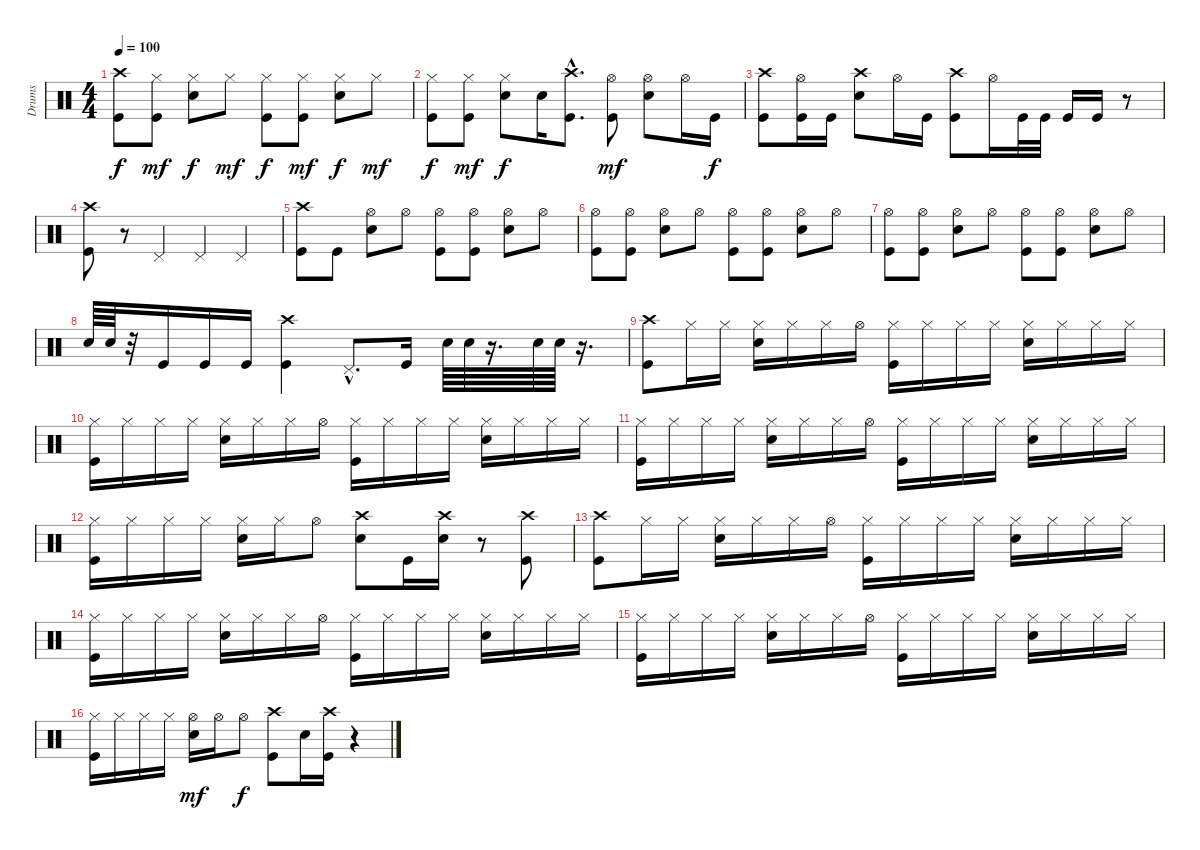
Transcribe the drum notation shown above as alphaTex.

\track ("Drums" "Drums") {instrument percussion}
\staff {score}
\articulation defaults
\ts (4 4)
\tempo 100
\clef neutral
\ks c
("Crash high (hit)" "Kick (hit)").8{dy f} ("Hi-Hat (closed)" "Kick (hit)").8{dy mf} ("Hi-Hat (closed)" "Snare (hit) 2").8{dy f} "Hi-Hat (closed)".8{dy mf} ("Hi-Hat (closed)" "Kick (hit)").8{dy f} ("Hi-Hat (closed)" "Kick (hit)").8{dy mf} ("Hi-Hat (closed)" "Snare (hit) 2").8{dy f} "Hi-Hat (closed)".8{dy mf} |
("Hi-Hat (closed)" "Kick (hit)").8{dy f} ("Hi-Hat (closed)" "Kick (hit)").8{dy mf} ("Hi-Hat (closed)" "Snare (hit) 2").8{dy f} "Snare (hit) 2".16 ("Crash high (hit)"{hac} "Kick (hit)"{hac}).8{d} ("Hi-Hat (open)" "Kick (hit)").8{dy mf} ("Hi-Hat (open)" "Snare (hit) 2").8 "Hi-Hat (open)".16 "Kick (hit)".16{dy f} |
("Crash high (hit)" "Kick (hit)").8 ("Hi-Hat (open)" "Kick (hit)").16 "Kick (hit)".16 ("Crash high (hit)" "Snare (hit) 2").8 "Hi-Hat (open)".16 "Kick (hit)".16 ("Crash high (hit)" "Kick (hit)").8 "Hi-Hat (open)".16 "Kick (hit)".32 "Kick (hit)".32 "Kick (hit)".16 "Kick (hit)".16 r.8 |
("Crash high (hit)" "Kick (hit)").8 r.8 "Pedal Hi-Hat (hit)".4 "Pedal Hi-Hat (hit)".4 "Pedal Hi-Hat (hit)".4 |
("Crash high (hit)" "Kick (hit)").8 "Kick (hit)".8 ("Hi-Hat (open)" "Snare (hit) 2").8 "Hi-Hat (open)".8 ("Hi-Hat (open)" "Kick (hit)").8 ("Hi-Hat (open)" "Kick (hit)").8 ("Hi-Hat (open)" "Snare (hit) 2").8 "Hi-Hat (open)".8 |
("Hi-Hat (open)" "Kick (hit)").8 ("Hi-Hat (open)" "Kick (hit)").8 ("Hi-Hat (open)" "Snare (hit) 2").8 "Hi-Hat (open)".8 ("Hi-Hat (open)" "Kick (hit)").8 ("Hi-Hat (open)" "Kick (hit)").8 ("Hi-Hat (open)" "Snare (hit) 2").8 "Hi-Hat (open)".8 |
("Hi-Hat (open)" "Kick (hit)").8 ("Hi-Hat (open)" "Kick (hit)").8 ("Hi-Hat (open)" "Snare (hit) 2").8 "Hi-Hat (open)".8 ("Hi-Hat (open)" "Kick (hit)").8 ("Hi-Hat (open)" "Kick (hit)").8 ("Hi-Hat (open)" "Snare (hit) 2").8 "Hi-Hat (open)".8 |
"Snare (hit) 2".64 "Snare (hit) 2".64 r.32 "Kick (hit)".16 "Kick (hit)".16 "Kick (hit)".16 ("Crash high (hit)" "Kick (hit)").4 "Pedal Hi-Hat (hit)"{hac}.8{d} "Kick (hit)".16 "Snare (hit) 2".64 "Snare (hit) 2".64 r.16{d} "Snare (hit) 2".64 "Snare (hit) 2".64 r.16{d} |
("Crash high (hit)" "Kick (hit)").8 "Hi-Hat (closed)".16 "Hi-Hat (closed)".16 ("Hi-Hat (closed)" "Snare (hit) 2").16 "Hi-Hat (closed)".16 "Hi-Hat (closed)".16 "Hi-Hat (open)".16 ("Hi-Hat (closed)" "Kick (hit)").16 "Hi-Hat (closed)".16 "Hi-Hat (closed)".16 "Hi-Hat (closed)".16 ("Hi-Hat (closed)" "Snare (hit) 2").16 "Hi-Hat (closed)".16 "Hi-Hat (closed)".16 "Hi-Hat (closed)".16 |
("Hi-Hat (closed)" "Kick (hit)").16 "Hi-Hat (closed)".16 "Hi-Hat (closed)".16 "Hi-Hat (closed)".16 ("Hi-Hat (closed)" "Snare (hit) 2").16 "Hi-Hat (closed)".16 "Hi-Hat (closed)".16 "Hi-Hat (open)".16 ("Hi-Hat (closed)" "Kick (hit)").16 "Hi-Hat (closed)".16 "Hi-Hat (closed)".16 "Hi-Hat (closed)".16 ("Hi-Hat (closed)" "Snare (hit) 2").16 "Hi-Hat (closed)".16 "Hi-Hat (closed)".16 "Hi-Hat (closed)".16 |
("Hi-Hat (closed)" "Kick (hit)").16 "Hi-Hat (closed)".16 "Hi-Hat (closed)".16 "Hi-Hat (closed)".16 ("Hi-Hat (closed)" "Snare (hit) 2").16 "Hi-Hat (closed)".16 "Hi-Hat (closed)".16 "Hi-Hat (open)".16 ("Hi-Hat (closed)" "Kick (hit)").16 "Hi-Hat (closed)".16 "Hi-Hat (closed)".16 "Hi-Hat (closed)".16 ("Hi-Hat (closed)" "Snare (hit) 2").16 "Hi-Hat (closed)".16 "Hi-Hat (closed)".16 "Hi-Hat (closed)".16 |
("Hi-Hat (closed)" "Kick (hit)").16 "Hi-Hat (closed)".16 "Hi-Hat (closed)".16 "Hi-Hat (closed)".16 ("Hi-Hat (closed)" "Snare (hit) 2").16 "Hi-Hat (closed)".16 "Hi-Hat (open)".8 ("Crash high (hit)" "Snare (hit) 2").8 "Kick (hit)".16 ("Crash high (hit)" "Snare (hit) 2").16 r.8 ("Crash high (hit)" "Kick (hit)").8 |
("Crash high (hit)" "Kick (hit)").8 "Hi-Hat (closed)".16 "Hi-Hat (closed)".16 ("Hi-Hat (closed)" "Snare (hit) 2").16 "Hi-Hat (closed)".16 "Hi-Hat (closed)".16 "Hi-Hat (open)".16 ("Hi-Hat (closed)" "Kick (hit)").16 "Hi-Hat (closed)".16 "Hi-Hat (closed)".16 "Hi-Hat (closed)".16 ("Hi-Hat (closed)" "Snare (hit) 2").16 "Hi-Hat (closed)".16 "Hi-Hat (closed)".16 "Hi-Hat (closed)".16 |
("Hi-Hat (closed)" "Kick (hit)").16 "Hi-Hat (closed)".16 "Hi-Hat (closed)".16 "Hi-Hat (closed)".16 ("Hi-Hat (closed)" "Snare (hit) 2").16 "Hi-Hat (closed)".16 "Hi-Hat (closed)".16 "Hi-Hat (open)".16 ("Hi-Hat (closed)" "Kick (hit)").16 "Hi-Hat (closed)".16 "Hi-Hat (closed)".16 "Hi-Hat (closed)".16 ("Hi-Hat (closed)" "Snare (hit) 2").16 "Hi-Hat (closed)".16 "Hi-Hat (closed)".16 "Hi-Hat (closed)".16 |
("Hi-Hat (closed)" "Kick (hit)").16 "Hi-Hat (closed)".16 "Hi-Hat (closed)".16 "Hi-Hat (closed)".16 ("Hi-Hat (closed)" "Snare (hit) 2").16 "Hi-Hat (closed)".16 "Hi-Hat (closed)".16 "Hi-Hat (open)".16 ("Hi-Hat (closed)" "Kick (hit)").16 "Hi-Hat (closed)".16 "Hi-Hat (closed)".16 "Hi-Hat (closed)".16 ("Hi-Hat (closed)" "Snare (hit) 2").16 "Hi-Hat (closed)".16 "Hi-Hat (closed)".16 "Hi-Hat (closed)".16 |
("Hi-Hat (closed)" "Kick (hit)").16 "Hi-Hat (closed)".16 "Hi-Hat (closed)".16 "Hi-Hat (closed)".16 ("Hi-Hat (open)" "Snare (hit) 2").16{dy mf} "Hi-Hat (open)".16 "Hi-Hat (open)".8{dy f} ("Crash high (hit)" "Kick (hit)").8 "Snare (hit) 2".16 ("Crash high (hit)" "Kick (hit)").16 r.4
